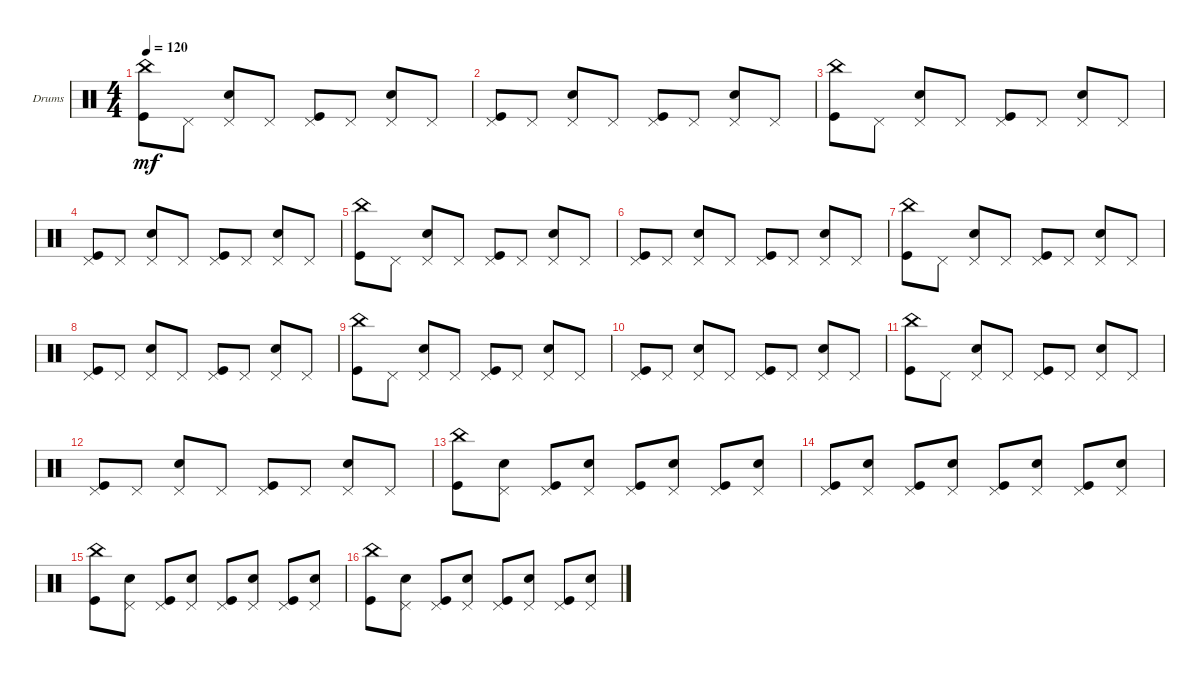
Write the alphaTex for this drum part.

\defaultSystemsLayout 4
\bracketExtendMode groupsimilarinstruments
\firstSystemTrackNameOrientation horizontal
\otherSystemsTrackNameOrientation horizontal
\track ("Drumkit" "Drums") {instrument percussion}
\staff {score}
\articulation defaults
\ts (4 4)
\tempo 120
\clef neutral
\ks c
("Kick (hit)" "China (hit)").8{dy mf} "Pedal Hi-Hat (hit)".8 ("Snare (hit) 2" "Pedal Hi-Hat (hit)").8 "Pedal Hi-Hat (hit)".8 ("Kick (hit)" "Pedal Hi-Hat (hit)").8 "Pedal Hi-Hat (hit)".8 ("Snare (hit) 2" "Pedal Hi-Hat (hit)").8 "Pedal Hi-Hat (hit)".8 |
("Kick (hit)" "Pedal Hi-Hat (hit)").8 "Pedal Hi-Hat (hit)".8 ("Snare (hit) 2" "Pedal Hi-Hat (hit)").8 "Pedal Hi-Hat (hit)".8 ("Kick (hit)" "Pedal Hi-Hat (hit)").8 "Pedal Hi-Hat (hit)".8 ("Snare (hit) 2" "Pedal Hi-Hat (hit)").8 "Pedal Hi-Hat (hit)".8 |
("Kick (hit)" "China (hit)").8 "Pedal Hi-Hat (hit)".8 ("Snare (hit) 2" "Pedal Hi-Hat (hit)").8 "Pedal Hi-Hat (hit)".8 ("Kick (hit)" "Pedal Hi-Hat (hit)").8 "Pedal Hi-Hat (hit)".8 ("Snare (hit) 2" "Pedal Hi-Hat (hit)").8 "Pedal Hi-Hat (hit)".8 |
("Kick (hit)" "Pedal Hi-Hat (hit)").8 "Pedal Hi-Hat (hit)".8 ("Snare (hit) 2" "Pedal Hi-Hat (hit)").8 "Pedal Hi-Hat (hit)".8 ("Kick (hit)" "Pedal Hi-Hat (hit)").8 "Pedal Hi-Hat (hit)".8 ("Snare (hit) 2" "Pedal Hi-Hat (hit)").8 "Pedal Hi-Hat (hit)".8 |
("Kick (hit)" "China (hit)").8 "Pedal Hi-Hat (hit)".8 ("Snare (hit) 2" "Pedal Hi-Hat (hit)").8 "Pedal Hi-Hat (hit)".8 ("Kick (hit)" "Pedal Hi-Hat (hit)").8 "Pedal Hi-Hat (hit)".8 ("Snare (hit) 2" "Pedal Hi-Hat (hit)").8 "Pedal Hi-Hat (hit)".8 |
("Kick (hit)" "Pedal Hi-Hat (hit)").8 "Pedal Hi-Hat (hit)".8 ("Snare (hit) 2" "Pedal Hi-Hat (hit)").8 "Pedal Hi-Hat (hit)".8 ("Kick (hit)" "Pedal Hi-Hat (hit)").8 "Pedal Hi-Hat (hit)".8 ("Snare (hit) 2" "Pedal Hi-Hat (hit)").8 "Pedal Hi-Hat (hit)".8 |
("Kick (hit)" "China (hit)").8 "Pedal Hi-Hat (hit)".8 ("Snare (hit) 2" "Pedal Hi-Hat (hit)").8 "Pedal Hi-Hat (hit)".8 ("Kick (hit)" "Pedal Hi-Hat (hit)").8 "Pedal Hi-Hat (hit)".8 ("Snare (hit) 2" "Pedal Hi-Hat (hit)").8 "Pedal Hi-Hat (hit)".8 |
("Kick (hit)" "Pedal Hi-Hat (hit)").8 "Pedal Hi-Hat (hit)".8 ("Snare (hit) 2" "Pedal Hi-Hat (hit)").8 "Pedal Hi-Hat (hit)".8 ("Kick (hit)" "Pedal Hi-Hat (hit)").8 "Pedal Hi-Hat (hit)".8 ("Snare (hit) 2" "Pedal Hi-Hat (hit)").8 "Pedal Hi-Hat (hit)".8 |
("Kick (hit)" "China (hit)").8 "Pedal Hi-Hat (hit)".8 ("Snare (hit) 2" "Pedal Hi-Hat (hit)").8 "Pedal Hi-Hat (hit)".8 ("Kick (hit)" "Pedal Hi-Hat (hit)").8 "Pedal Hi-Hat (hit)".8 ("Snare (hit) 2" "Pedal Hi-Hat (hit)").8 "Pedal Hi-Hat (hit)".8 |
("Kick (hit)" "Pedal Hi-Hat (hit)").8 "Pedal Hi-Hat (hit)".8 ("Snare (hit) 2" "Pedal Hi-Hat (hit)").8 "Pedal Hi-Hat (hit)".8 ("Kick (hit)" "Pedal Hi-Hat (hit)").8 "Pedal Hi-Hat (hit)".8 ("Snare (hit) 2" "Pedal Hi-Hat (hit)").8 "Pedal Hi-Hat (hit)".8 |
("Kick (hit)" "China (hit)").8 "Pedal Hi-Hat (hit)".8 ("Snare (hit) 2" "Pedal Hi-Hat (hit)").8 "Pedal Hi-Hat (hit)".8 ("Kick (hit)" "Pedal Hi-Hat (hit)").8 "Pedal Hi-Hat (hit)".8 ("Snare (hit) 2" "Pedal Hi-Hat (hit)").8 "Pedal Hi-Hat (hit)".8 |
("Kick (hit)" "Pedal Hi-Hat (hit)").8 "Pedal Hi-Hat (hit)".8 ("Snare (hit) 2" "Pedal Hi-Hat (hit)").8 "Pedal Hi-Hat (hit)".8 ("Kick (hit)" "Pedal Hi-Hat (hit)").8 "Pedal Hi-Hat (hit)".8 ("Snare (hit) 2" "Pedal Hi-Hat (hit)").8 "Pedal Hi-Hat (hit)".8 |
("Kick (hit)" "China (hit)").8 ("Pedal Hi-Hat (hit)" "Snare (hit) 2").8 ("Pedal Hi-Hat (hit)" "Kick (hit)").8 ("Pedal Hi-Hat (hit)" "Snare (hit) 2").8 ("Kick (hit)" "Pedal Hi-Hat (hit)").8 ("Pedal Hi-Hat (hit)" "Snare (hit) 2").8 ("Pedal Hi-Hat (hit)" "Kick (hit)").8 ("Pedal Hi-Hat (hit)" "Snare (hit) 2").8 |
("Kick (hit)" "Pedal Hi-Hat (hit)").8 ("Pedal Hi-Hat (hit)" "Snare (hit) 2").8 ("Pedal Hi-Hat (hit)" "Kick (hit)").8 ("Pedal Hi-Hat (hit)" "Snare (hit) 2").8 ("Kick (hit)" "Pedal Hi-Hat (hit)").8 ("Pedal Hi-Hat (hit)" "Snare (hit) 2").8 ("Pedal Hi-Hat (hit)" "Kick (hit)").8 ("Pedal Hi-Hat (hit)" "Snare (hit) 2").8 |
("Kick (hit)" "China (hit)").8 ("Pedal Hi-Hat (hit)" "Snare (hit) 2").8 ("Pedal Hi-Hat (hit)" "Kick (hit)").8 ("Pedal Hi-Hat (hit)" "Snare (hit) 2").8 ("Kick (hit)" "Pedal Hi-Hat (hit)").8 ("Pedal Hi-Hat (hit)" "Snare (hit) 2").8 ("Pedal Hi-Hat (hit)" "Kick (hit)").8 ("Pedal Hi-Hat (hit)" "Snare (hit) 2").8 |
("Kick (hit)" "China (hit)").8 ("Pedal Hi-Hat (hit)" "Snare (hit) 2").8 ("Pedal Hi-Hat (hit)" "Kick (hit)").8 ("Pedal Hi-Hat (hit)" "Snare (hit) 2").8 ("Kick (hit)" "Pedal Hi-Hat (hit)").8 ("Pedal Hi-Hat (hit)" "Snare (hit) 2").8 ("Pedal Hi-Hat (hit)" "Kick (hit)").8 ("Pedal Hi-Hat (hit)" "Snare (hit) 2").8
